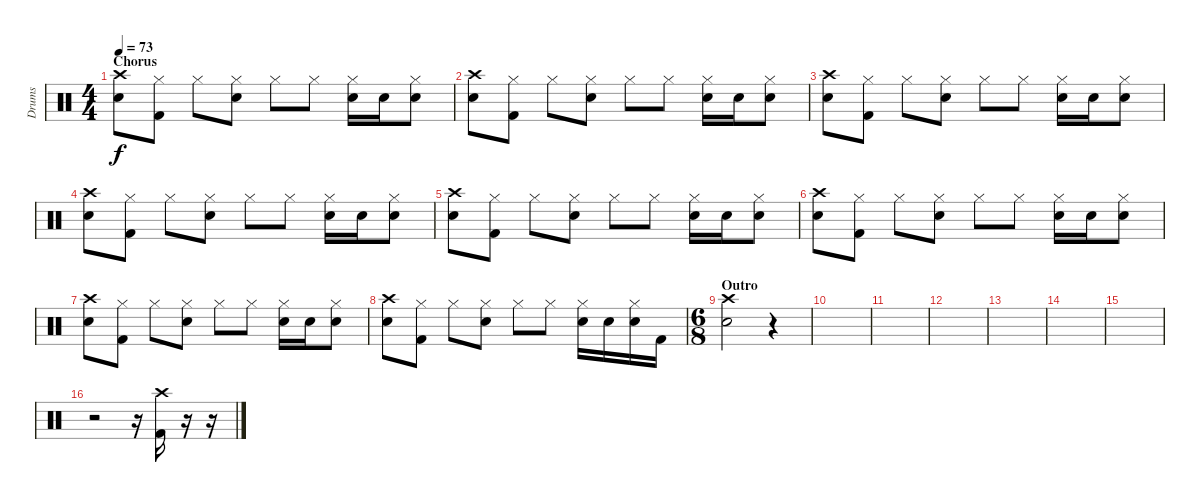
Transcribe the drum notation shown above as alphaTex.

\track ("Drums" "Drums") {instrument percussion}
\staff {score}
\articulation defaults
\ts (4 4)
\section ("" "Chorus")
\tempo 73
\clef neutral
\ks c
("Crash high (hit)" "Snare (hit) 2").8{dy f} ("Hi-Hat (closed)" "Kick (hit) 2").8 "Hi-Hat (closed)".8 ("Hi-Hat (closed)" "Snare (hit) 2").8 "Hi-Hat (closed)".8 "Hi-Hat (closed)".8 ("Hi-Hat (closed)" "Electric Snare (hit)").16 "Electric Snare (hit)".16 ("Hi-Hat (closed)" "Electric Snare (hit)").8 |
("Crash high (hit)" "Snare (hit) 2").8 ("Hi-Hat (closed)" "Kick (hit) 2").8 "Hi-Hat (closed)".8 ("Hi-Hat (closed)" "Snare (hit) 2").8 "Hi-Hat (closed)".8 "Hi-Hat (closed)".8 ("Hi-Hat (closed)" "Electric Snare (hit)").16 "Electric Snare (hit)".16 ("Hi-Hat (closed)" "Electric Snare (hit)").8 |
("Crash high (hit)" "Snare (hit) 2").8 ("Hi-Hat (closed)" "Kick (hit) 2").8 "Hi-Hat (closed)".8 ("Hi-Hat (closed)" "Snare (hit) 2").8 "Hi-Hat (closed)".8 "Hi-Hat (closed)".8 ("Hi-Hat (closed)" "Electric Snare (hit)").16 "Electric Snare (hit)".16 ("Hi-Hat (closed)" "Electric Snare (hit)").8 |
("Crash high (hit)" "Snare (hit) 2").8 ("Hi-Hat (closed)" "Kick (hit) 2").8 "Hi-Hat (closed)".8 ("Hi-Hat (closed)" "Snare (hit) 2").8 "Hi-Hat (closed)".8 "Hi-Hat (closed)".8 ("Hi-Hat (closed)" "Electric Snare (hit)").16 "Electric Snare (hit)".16 ("Hi-Hat (closed)" "Electric Snare (hit)").8 |
("Crash high (hit)" "Snare (hit) 2").8 ("Hi-Hat (closed)" "Kick (hit) 2").8 "Hi-Hat (closed)".8 ("Hi-Hat (closed)" "Snare (hit) 2").8 "Hi-Hat (closed)".8 "Hi-Hat (closed)".8 ("Hi-Hat (closed)" "Electric Snare (hit)").16 "Electric Snare (hit)".16 ("Hi-Hat (closed)" "Electric Snare (hit)").8 |
("Crash high (hit)" "Snare (hit) 2").8 ("Hi-Hat (closed)" "Kick (hit) 2").8 "Hi-Hat (closed)".8 ("Hi-Hat (closed)" "Snare (hit) 2").8 "Hi-Hat (closed)".8 "Hi-Hat (closed)".8 ("Hi-Hat (closed)" "Electric Snare (hit)").16 "Electric Snare (hit)".16 ("Hi-Hat (closed)" "Electric Snare (hit)").8 |
("Crash high (hit)" "Snare (hit) 2").8 ("Hi-Hat (closed)" "Kick (hit) 2").8 "Hi-Hat (closed)".8 ("Hi-Hat (closed)" "Snare (hit) 2").8 "Hi-Hat (closed)".8 "Hi-Hat (closed)".8 ("Hi-Hat (closed)" "Electric Snare (hit)").16 "Electric Snare (hit)".16 ("Hi-Hat (closed)" "Electric Snare (hit)").8 |
("Crash high (hit)" "Snare (hit) 2").8 ("Hi-Hat (closed)" "Kick (hit) 2").8 "Hi-Hat (closed)".8 ("Hi-Hat (closed)" "Snare (hit) 2").8 "Hi-Hat (closed)".8 "Hi-Hat (closed)".8 ("Hi-Hat (closed)" "Electric Snare (hit)").16 "Electric Snare (hit)".16 ("Hi-Hat (closed)" "Electric Snare (hit)").16 "Kick (hit) 2".16 |
\ts (6 8)
\section ("" "Outro")
("Crash high (hit)" "Snare (hit) 2").2 r.4 |
|
|
|
|
|
|
r.2 r.16 ("Crash high (hit)" "Kick (hit) 2").16 r.16 r.16
